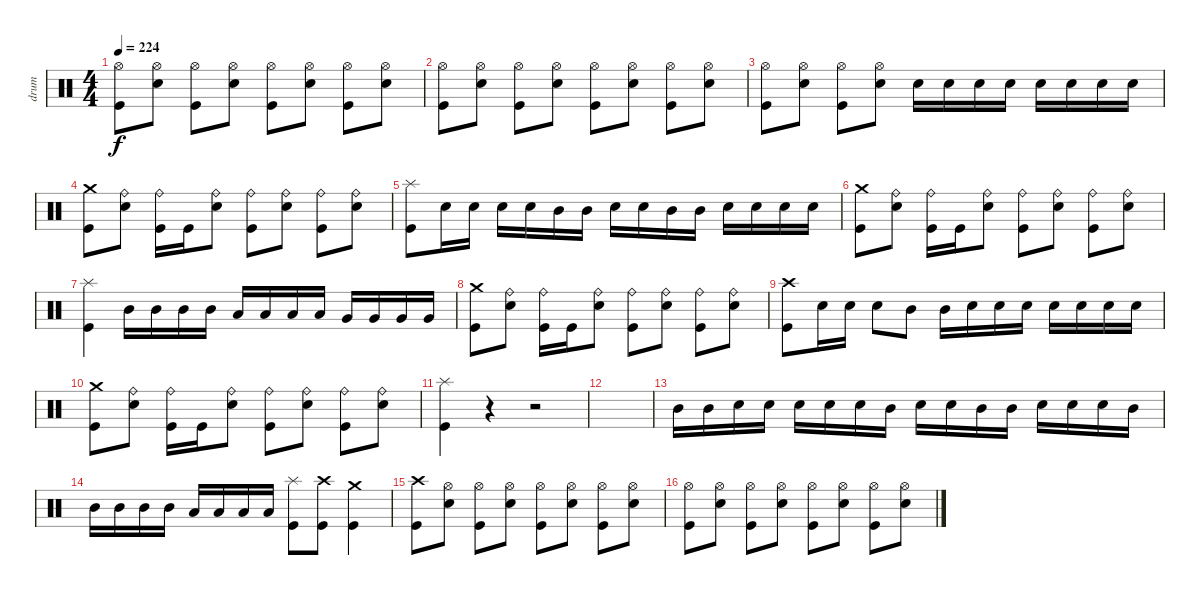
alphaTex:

\track ("drum" "drum") {instrument percussion}
\staff {score}
\articulation defaults
\ts (4 4)
\tempo 224
\clef neutral
\ks c
("Kick (hit)" "Hi-Hat (open)").8{dy f} ("Electric Snare (hit)" "Hi-Hat (open)").8 ("Kick (hit)" "Hi-Hat (open)").8 ("Electric Snare (hit)" "Hi-Hat (open)").8 ("Kick (hit)" "Hi-Hat (open)").8 ("Electric Snare (hit)" "Hi-Hat (open)").8 ("Kick (hit)" "Hi-Hat (open)").8 ("Electric Snare (hit)" "Hi-Hat (open)").8 |
("Kick (hit)" "Hi-Hat (open)").8 ("Electric Snare (hit)" "Hi-Hat (open)").8 ("Kick (hit)" "Hi-Hat (open)").8 ("Electric Snare (hit)" "Hi-Hat (open)").8 ("Kick (hit)" "Hi-Hat (open)").8 ("Electric Snare (hit)" "Hi-Hat (open)").8 ("Kick (hit)" "Hi-Hat (open)").8 ("Electric Snare (hit)" "Hi-Hat (open)").8 |
("Kick (hit)" "Hi-Hat (open)").8 ("Electric Snare (hit)" "Hi-Hat (open)").8 ("Kick (hit)" "Hi-Hat (open)").8 ("Electric Snare (hit)" "Hi-Hat (open)").8 "Electric Snare (hit)".16 "Electric Snare (hit)".16 "Electric Snare (hit)".16 "Electric Snare (hit)".16 "Electric Snare (hit)".16 "Electric Snare (hit)".16 "Electric Snare (hit)".16 "Electric Snare (hit)".16 |
("Kick (hit)" "Crash medium (hit)").8 ("Electric Snare (hit)" "Ride (bell)").8 ("Kick (hit)" "Ride (bell)").16 "Kick (hit)".16 ("Electric Snare (hit)" "Ride (bell)").8 ("Kick (hit)" "Ride (bell)").8 ("Electric Snare (hit)" "Ride (bell)").8 ("Kick (hit)" "Ride (bell)").8 ("Electric Snare (hit)" "Ride (bell)").8 |
("Kick (hit)" "Splash (hit)").8 "Electric Snare (hit)".16 "Electric Snare (hit)".16 "Electric Snare (hit)".16 "Electric Snare (hit)".16 "Mid Tom (hit)".16 "Mid Tom (hit)".16 "Electric Snare (hit)".16 "Electric Snare (hit)".16 "Mid Tom (hit)".16 "Mid Tom (hit)".16 "Electric Snare (hit)".16 "Electric Snare (hit)".16 "Electric Snare (hit)".16 "Electric Snare (hit)".16 |
("Kick (hit)" "Crash medium (hit)").8 ("Electric Snare (hit)" "Ride (bell)").8 ("Kick (hit)" "Ride (bell)").16 "Kick (hit)".16 ("Electric Snare (hit)" "Ride (bell)").8 ("Kick (hit)" "Ride (bell)").8 ("Electric Snare (hit)" "Ride (bell)").8 ("Kick (hit)" "Ride (bell)").8 ("Electric Snare (hit)" "Ride (bell)").8 |
("Kick (hit)" "Splash (hit)").4 "Mid Tom (hit)".16 "Mid Tom (hit)".16 "Mid Tom (hit)".16 "Mid Tom (hit)".16 "Low Tom (hit)".16 "Low Tom (hit)".16 "Low Tom (hit)".16 "Low Tom (hit)".16 "Very Low Tom (hit)".16 "Very Low Tom (hit)".16 "Very Low Tom (hit)".16 "Very Low Tom (hit)".16 |
("Kick (hit)" "Crash medium (hit)").8 ("Electric Snare (hit)" "Ride (bell)").8 ("Kick (hit)" "Ride (bell)").16 "Kick (hit)".16 ("Electric Snare (hit)" "Ride (bell)").8 ("Kick (hit)" "Ride (bell)").8 ("Electric Snare (hit)" "Ride (bell)").8 ("Kick (hit)" "Ride (bell)").8 ("Electric Snare (hit)" "Ride (bell)").8 |
("Kick (hit)" "Crash high (hit)").8 "Electric Snare (hit)".16 "Electric Snare (hit)".16 "Electric Snare (hit)".8 "Mid Tom (hit)".8 "Mid Tom (hit)".16 "Electric Snare (hit)".16 "Electric Snare (hit)".16 "Electric Snare (hit)".16 "Electric Snare (hit)".16 "Electric Snare (hit)".16 "Electric Snare (hit)".16 "Electric Snare (hit)".16 |
("Kick (hit)" "Crash medium (hit)").8 ("Electric Snare (hit)" "Ride (bell)").8 ("Kick (hit)" "Ride (bell)").16 "Kick (hit)".16 ("Electric Snare (hit)" "Ride (bell)").8 ("Kick (hit)" "Ride (bell)").8 ("Electric Snare (hit)" "Ride (bell)").8 ("Kick (hit)" "Ride (bell)").8 ("Electric Snare (hit)" "Ride (bell)").8 |
("Kick (hit)" "Splash (hit)").4 r.4 r.2 |
|
"Mid Tom (hit)".16 "Mid Tom (hit)".16 "Electric Snare (hit)".16 "Electric Snare (hit)".16 "Electric Snare (hit)".16 "Electric Snare (hit)".16 "Electric Snare (hit)".16 "Mid Tom (hit)".16 "Electric Snare (hit)".16 "Electric Snare (hit)".16 "Mid Tom (hit)".16 "Mid Tom (hit)".16 "Electric Snare (hit)".16 "Electric Snare (hit)".16 "Electric Snare (hit)".16 "Mid Tom (hit)".16 |
"Mid Tom (hit)".16 "Mid Tom (hit)".16 "Mid Tom (hit)".16 "Mid Tom (hit)".16 "Low Tom (hit)".16 "Low Tom (hit)".16 "Low Tom (hit)".16 "Low Tom (hit)".16 ("Kick (hit)" "Splash (hit)").8 ("Kick (hit)" "Crash high (hit)").8 ("Kick (hit)" "Crash medium (hit)").4 |
("Kick (hit)" "Crash high (hit)").8 ("Electric Snare (hit)" "Hi-Hat (open)").8 ("Kick (hit)" "Hi-Hat (open)").8 ("Electric Snare (hit)" "Hi-Hat (open)").8 ("Kick (hit)" "Hi-Hat (open)").8 ("Electric Snare (hit)" "Hi-Hat (open)").8 ("Kick (hit)" "Hi-Hat (open)").8 ("Electric Snare (hit)" "Hi-Hat (open)").8 |
("Kick (hit)" "Hi-Hat (open)").8 ("Electric Snare (hit)" "Hi-Hat (open)").8 ("Kick (hit)" "Hi-Hat (open)").8 ("Electric Snare (hit)" "Hi-Hat (open)").8 ("Kick (hit)" "Hi-Hat (open)").8 ("Electric Snare (hit)" "Hi-Hat (open)").8 ("Kick (hit)" "Hi-Hat (open)").8 ("Electric Snare (hit)" "Hi-Hat (open)").8
